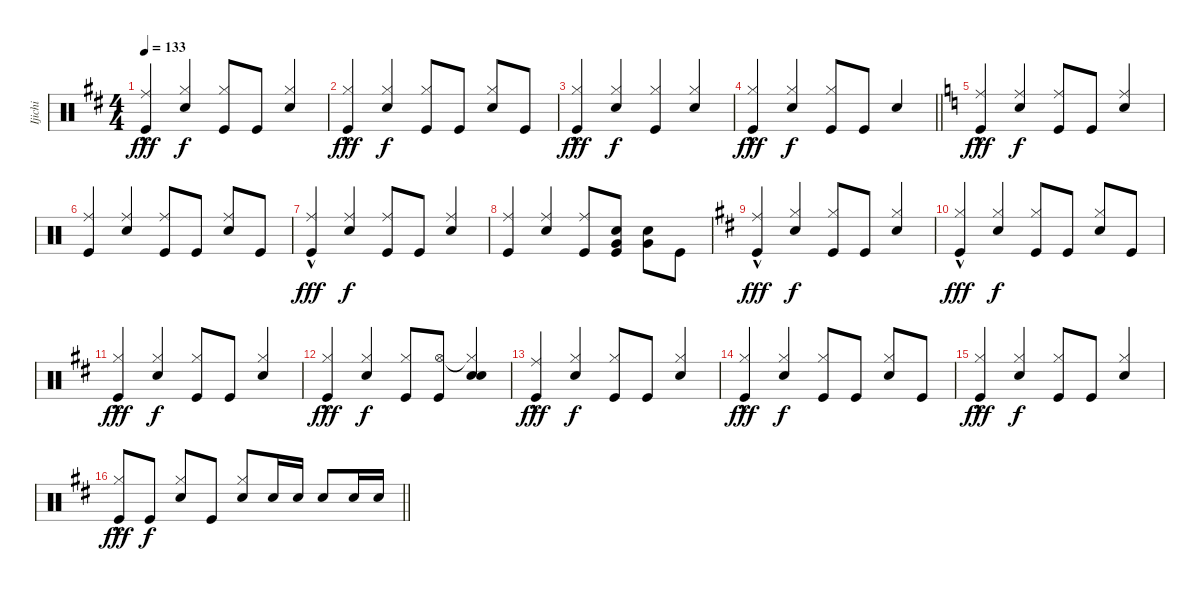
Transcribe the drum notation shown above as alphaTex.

\track ("Ijichi" "Ijichi") {instrument percussion}
\staff {score}
\articulation defaults
\ts (4 4)
\tempo 133
\clef neutral
\ks d
("Ride (middle)"{hac} "Kick (hit)").4{dy fff beam Up} ("Hi-Hat (closed)" "Snare (hit) 2").4{dy f beam Up} ("Hi-Hat (closed)" "Kick (hit)").8{beam Up} "Kick (hit)".8{beam Up} ("Hi-Hat (closed)" "Snare (hit) 2").4{beam Up} |
("Hi-Hat (closed)"{hac} "Kick (hit)").4{dy fff beam Up} ("Hi-Hat (closed)" "Snare (hit) 2").4{dy f beam Up} ("Hi-Hat (closed)" "Kick (hit)").8{beam Up} "Kick (hit)".8{beam Up} ("Hi-Hat (closed)" "Snare (hit) 2").8{beam Up} "Kick (hit)".8{beam Up} |
("Hi-Hat (closed)"{hac} "Kick (hit)").4{dy fff beam Up} ("Hi-Hat (closed)" "Snare (hit) 2").4{dy f beam Up} ("Hi-Hat (closed)" "Kick (hit)").4{beam Up} ("Hi-Hat (closed)" "Snare (hit) 2").4{beam Up} |
\barLineRight lightlight
("Hi-Hat (closed)"{hac} "Kick (hit)").4{dy fff beam Up} ("Hi-Hat (closed)" "Snare (hit) 2").4{dy f beam Up} ("Hi-Hat (closed)" "Kick (hit)").8{beam Up} "Kick (hit)".8{beam Up} "Snare (hit) 2".4{beam Up} |
\ks c
("Ride (middle)"{hac} "Kick (hit)").4{dy fff beam Up} ("Ride (middle)" "Snare (hit) 2").4{dy f beam Up} ("Ride (middle)" "Kick (hit)").8{beam Up} "Kick (hit)".8{beam Up} ("Ride (middle)" "Snare (hit) 2").4{beam Up} |
("Ride (middle)" "Kick (hit)").4{beam Up} ("Ride (middle)" "Snare (hit) 2").4{beam Up} ("Ride (middle)" "Kick (hit)").8{beam Up} "Kick (hit)".8{beam Up} ("Ride (middle)" "Snare (hit) 2").8{beam Up} "Kick (hit)".8{beam Up} |
("Ride (middle)"{hac} "Kick (hit)").4{dy fff beam Up} ("Ride (middle)" "Snare (hit) 2").4{dy f beam Up} ("Ride (middle)" "Kick (hit)").8{beam Up} "Kick (hit)".8{beam Up} ("Ride (middle)" "Snare (hit) 2").4{beam Up} |
("Ride (middle)" "Kick (hit)").4{beam Up} ("Ride (middle)" "Snare (hit) 2").4{beam Up} ("Ride (middle)" "Kick (hit)").8{beam Up} ("Snare (hit) 2" "Very Low Tom (hit)" "Kick (hit)").8{beam Up} ("Snare (hit) 2" "Very Low Tom (hit)").8{beam Down} "Kick (hit)".8{beam Down} |
\ks d
("Ride (middle)"{hac} "Kick (hit)").4{dy fff beam Up} ("Hi-Hat (closed)" "Snare (hit) 2").4{dy f beam Up} ("Hi-Hat (closed)" "Kick (hit)").8{beam Up} "Kick (hit)".8{beam Up} ("Hi-Hat (closed)" "Snare (hit) 2").4{beam Up} |
("Hi-Hat (closed)"{hac} "Kick (hit)").4{dy fff beam Up} ("Hi-Hat (closed)" "Snare (hit) 2").4{dy f beam Up} ("Hi-Hat (closed)" "Kick (hit)").8{beam Up} "Kick (hit)".8{beam Up} ("Hi-Hat (closed)" "Snare (hit) 2").8{beam Up} "Kick (hit)".8{beam Up} |
("Hi-Hat (closed)"{hac} "Kick (hit)").4{dy fff beam Up} ("Hi-Hat (closed)" "Snare (hit) 2").4{dy f beam Up} ("Hi-Hat (closed)" "Kick (hit)").8{beam Up} "Kick (hit)".8{beam Up} ("Hi-Hat (closed)" "Snare (hit) 2").4{beam Up} |
("Hi-Hat (closed)"{hac} "Kick (hit)").4{dy fff beam Up} ("Hi-Hat (closed)" "Snare (hit) 2").4{dy f beam Up} ("Hi-Hat (closed)" "Kick (hit)").8{beam Up} ("Hi-Hat (open)" "Kick (hit)").8{beam Up} ("Hi-Hat (closed)"{t} "Snare (hit) 2" "Snare (hit) 2").4{beam Up} |
("Ride (middle)"{hac} "Kick (hit)").4{dy fff beam Up} ("Hi-Hat (closed)" "Snare (hit) 2").4{dy f beam Up} ("Hi-Hat (closed)" "Kick (hit)").8{beam Up} "Kick (hit)".8{beam Up} ("Hi-Hat (closed)" "Snare (hit) 2").4{beam Up} |
("Hi-Hat (closed)"{hac} "Kick (hit)").4{dy fff beam Up} ("Hi-Hat (closed)" "Snare (hit) 2").4{dy f beam Up} ("Hi-Hat (closed)" "Kick (hit)").8{beam Up} "Kick (hit)".8{beam Up} ("Hi-Hat (closed)" "Snare (hit) 2").8{beam Up} "Kick (hit)".8{beam Up} |
("Hi-Hat (closed)"{hac} "Kick (hit)").4{dy fff beam Up} ("Hi-Hat (closed)" "Snare (hit) 2").4{dy f beam Up} ("Hi-Hat (closed)" "Kick (hit)").8{beam Up} "Kick (hit)".8{beam Up} ("Hi-Hat (closed)" "Snare (hit) 2").4{beam Up} |
\barLineRight lightlight
("Hi-Hat (closed)"{hac} "Kick (hit)").8{dy fff beam Up} "Kick (hit)".8{dy f beam Up} ("Hi-Hat (closed)" "Snare (hit) 2").8{beam Up} "Kick (hit)".8{beam Up} ("Hi-Hat (closed)" "Snare (hit) 2").8{beam Up} "Snare (hit) 2".16{beam Up} "Snare (hit) 2".16{beam Up} "Snare (hit) 2".8{beam Up} "Snare (hit) 2".16{beam Up} "Snare (hit) 2".16{beam Up}
